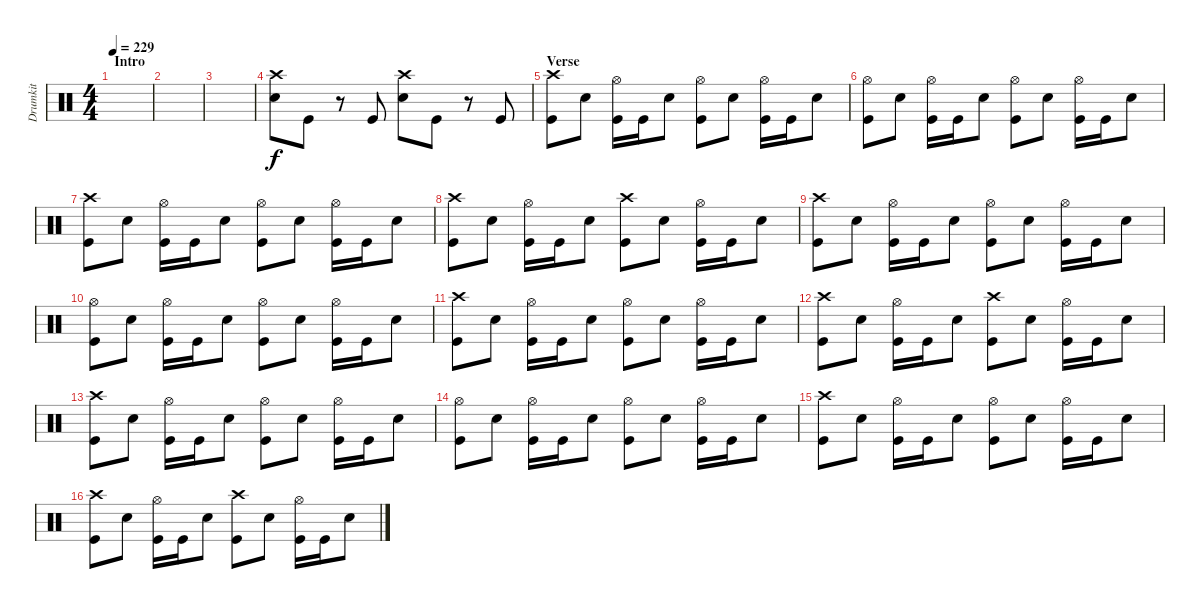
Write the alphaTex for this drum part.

\track ("Drumkit" "Drumkit") {instrument percussion}
\staff {score}
\articulation defaults
\ts (4 4)
\section ("" "Intro")
\tempo 229
\clef neutral
\ks c
|
|
|
("Snare (hit) 2" "Crash high (hit)").8 "Kick (hit)".8 r.8 "Kick (hit)".8 ("Snare (hit) 2" "Crash high (hit)").8 "Kick (hit)".8 r.8 "Kick (hit)".8 |
\section ("" "Verse")
("Kick (hit)" "Crash high (hit)").8 "Snare (hit) 2".8 ("Kick (hit)" "Hi-Hat (open)").16 "Kick (hit)".16 "Snare (hit) 2".8 ("Kick (hit)" "Hi-Hat (open)").8 "Snare (hit) 2".8 ("Kick (hit)" "Hi-Hat (open)").16 "Kick (hit)".16 "Snare (hit) 2".8 |
("Kick (hit)" "Hi-Hat (open)").8 "Snare (hit) 2".8 ("Kick (hit)" "Hi-Hat (open)").16 "Kick (hit)".16 "Snare (hit) 2".8 ("Kick (hit)" "Hi-Hat (open)").8 "Snare (hit) 2".8 ("Kick (hit)" "Hi-Hat (open)").16 "Kick (hit)".16 "Snare (hit) 2".8 |
("Kick (hit)" "Crash high (hit)").8 "Snare (hit) 2".8 ("Kick (hit)" "Hi-Hat (open)").16 "Kick (hit)".16 "Snare (hit) 2".8 ("Kick (hit)" "Hi-Hat (open)").8 "Snare (hit) 2".8 ("Kick (hit)" "Hi-Hat (open)").16 "Kick (hit)".16 "Snare (hit) 2".8 |
("Kick (hit)" "Crash high (hit)").8 "Snare (hit) 2".8 ("Kick (hit)" "Hi-Hat (open)").16 "Kick (hit)".16 "Snare (hit) 2".8 ("Kick (hit)" "Crash high (hit)").8 "Snare (hit) 2".8 ("Kick (hit)" "Hi-Hat (open)").16 "Kick (hit)".16 "Snare (hit) 2".8 |
("Kick (hit)" "Crash high (hit)").8 "Snare (hit) 2".8 ("Kick (hit)" "Hi-Hat (open)").16 "Kick (hit)".16 "Snare (hit) 2".8 ("Kick (hit)" "Hi-Hat (open)").8 "Snare (hit) 2".8 ("Kick (hit)" "Hi-Hat (open)").16 "Kick (hit)".16 "Snare (hit) 2".8 |
("Kick (hit)" "Hi-Hat (open)").8 "Snare (hit) 2".8 ("Kick (hit)" "Hi-Hat (open)").16 "Kick (hit)".16 "Snare (hit) 2".8 ("Kick (hit)" "Hi-Hat (open)").8 "Snare (hit) 2".8 ("Kick (hit)" "Hi-Hat (open)").16 "Kick (hit)".16 "Snare (hit) 2".8 |
("Kick (hit)" "Crash high (hit)").8 "Snare (hit) 2".8 ("Kick (hit)" "Hi-Hat (open)").16 "Kick (hit)".16 "Snare (hit) 2".8 ("Kick (hit)" "Hi-Hat (open)").8 "Snare (hit) 2".8 ("Kick (hit)" "Hi-Hat (open)").16 "Kick (hit)".16 "Snare (hit) 2".8 |
("Kick (hit)" "Crash high (hit)").8 "Snare (hit) 2".8 ("Kick (hit)" "Hi-Hat (open)").16 "Kick (hit)".16 "Snare (hit) 2".8 ("Kick (hit)" "Crash high (hit)").8 "Snare (hit) 2".8 ("Kick (hit)" "Hi-Hat (open)").16 "Kick (hit)".16 "Snare (hit) 2".8 |
("Kick (hit)" "Crash high (hit)").8 "Snare (hit) 2".8 ("Kick (hit)" "Hi-Hat (open)").16 "Kick (hit)".16 "Snare (hit) 2".8 ("Kick (hit)" "Hi-Hat (open)").8 "Snare (hit) 2".8 ("Kick (hit)" "Hi-Hat (open)").16 "Kick (hit)".16 "Snare (hit) 2".8 |
("Kick (hit)" "Hi-Hat (open)").8 "Snare (hit) 2".8 ("Kick (hit)" "Hi-Hat (open)").16 "Kick (hit)".16 "Snare (hit) 2".8 ("Kick (hit)" "Hi-Hat (open)").8 "Snare (hit) 2".8 ("Kick (hit)" "Hi-Hat (open)").16 "Kick (hit)".16 "Snare (hit) 2".8 |
("Kick (hit)" "Crash high (hit)").8 "Snare (hit) 2".8 ("Kick (hit)" "Hi-Hat (open)").16 "Kick (hit)".16 "Snare (hit) 2".8 ("Kick (hit)" "Hi-Hat (open)").8 "Snare (hit) 2".8 ("Kick (hit)" "Hi-Hat (open)").16 "Kick (hit)".16 "Snare (hit) 2".8 |
("Kick (hit)" "Crash high (hit)").8 "Snare (hit) 2".8 ("Kick (hit)" "Hi-Hat (open)").16 "Kick (hit)".16 "Snare (hit) 2".8 ("Kick (hit)" "Crash high (hit)").8 "Snare (hit) 2".8 ("Kick (hit)" "Hi-Hat (open)").16 "Kick (hit)".16 "Snare (hit) 2".8
